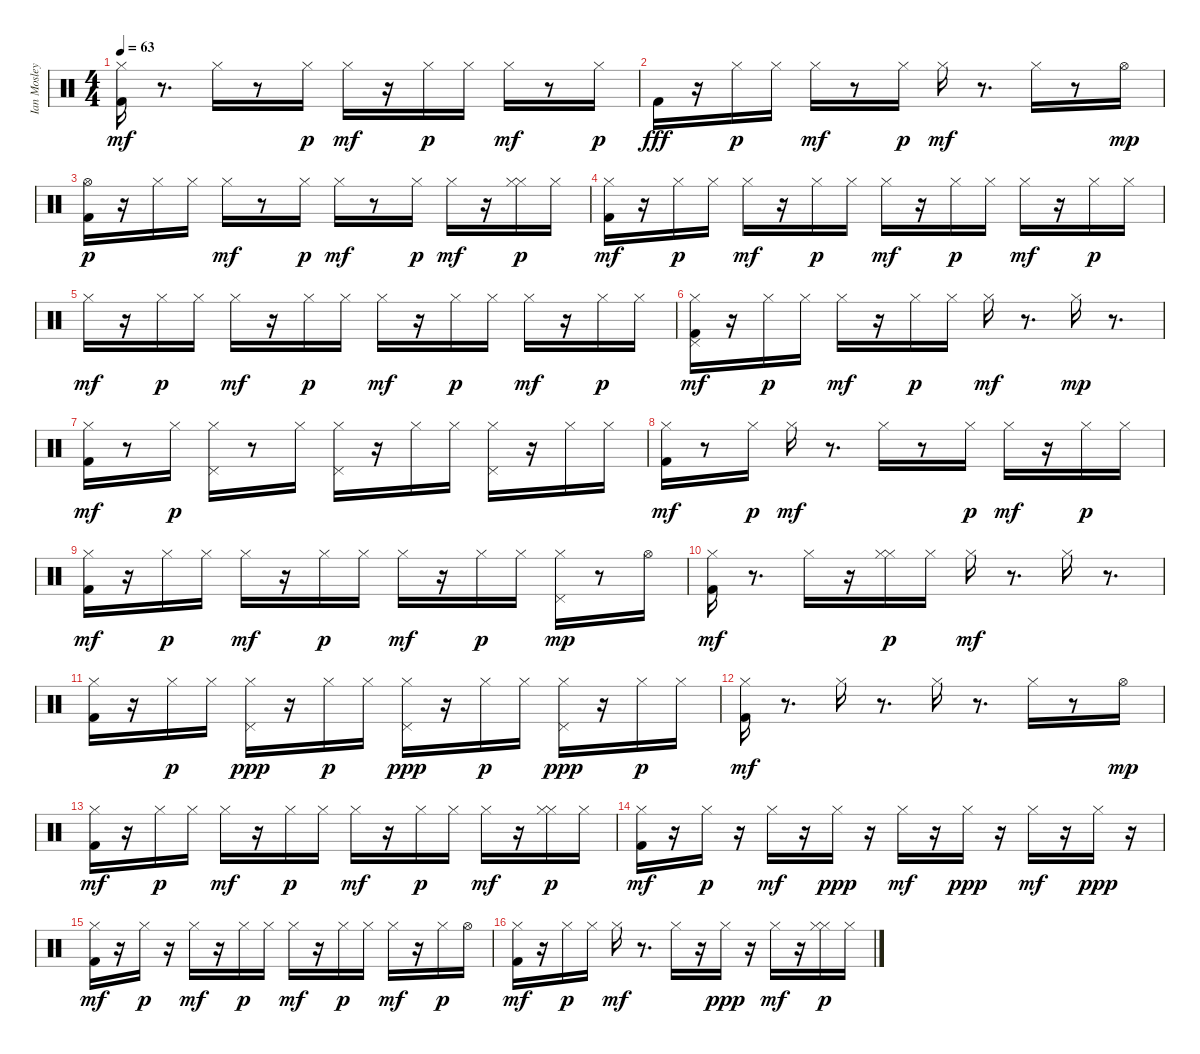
\track ("Ian Mosley" "Ian Mosley") {instrument percussion}
\staff {score}
\articulation defaults
\ts (4 4)
\tempo 63
\clef neutral
\ks c
("Kick (hit) 2" "Hi-Hat (closed)").16{dy mf} r.8{d} "Hi-Hat (closed)".16 r.8 "Hi-Hat (closed)".16{dy p} "Hi-Hat (closed)".16{dy mf} r.16 "Hi-Hat (closed)".16{dy p} "Hi-Hat (closed)".16 "Hi-Hat (closed)".16{dy mf} r.8 "Hi-Hat (closed)".16{dy p} |
"Kick (hit) 2".16{dy fff} r.16 "Hi-Hat (closed)".16{dy p} "Hi-Hat (closed)".16 "Hi-Hat (closed)".16{dy mf} r.8 "Hi-Hat (closed)".16{dy p} "Hi-Hat (closed)".16{dy mf} r.8{d} "Hi-Hat (closed)".16 r.8 "Hi-Hat (open)".16{dy mp} |
("Kick (hit) 2" "Hi-Hat (open)").16{dy p} r.16 "Hi-Hat (closed)".16 "Hi-Hat (closed)".16 "Hi-Hat (closed)".16{dy mf} r.8 "Hi-Hat (closed)".16{dy p} "Hi-Hat (closed)".16{dy mf} r.8 "Hi-Hat (closed)".16{dy p} "Hi-Hat (closed)".16{dy mf} r.16 ("Hi-Hat (closed)" "Hi-Hat (closed)").16{dy p} "Hi-Hat (closed)".16 |
("Kick (hit) 2" "Hi-Hat (closed)").16{dy mf} r.16 "Hi-Hat (closed)".16{dy p} "Hi-Hat (closed)".16 "Hi-Hat (closed)".16{dy mf} r.16 "Hi-Hat (closed)".16{dy p} "Hi-Hat (closed)".16 "Hi-Hat (closed)".16{dy mf} r.16 "Hi-Hat (closed)".16{dy p} "Hi-Hat (closed)".16 "Hi-Hat (closed)".16{dy mf} r.16 "Hi-Hat (closed)".16{dy p} "Hi-Hat (closed)".16 |
"Hi-Hat (closed)".16{dy mf} r.16 "Hi-Hat (closed)".16{dy p} "Hi-Hat (closed)".16 "Hi-Hat (closed)".16{dy mf} r.16 "Hi-Hat (closed)".16{dy p} "Hi-Hat (closed)".16 "Hi-Hat (closed)".16{dy mf} r.16 "Hi-Hat (closed)".16{dy p} "Hi-Hat (closed)".16 "Hi-Hat (closed)".16{dy mf} r.16 "Hi-Hat (closed)".16{dy p} "Hi-Hat (closed)".16 |
("Kick (hit) 2" "Hi-Hat (closed)" "Pedal Hi-Hat (hit)").16{dy mf} r.16 "Hi-Hat (closed)".16{dy p} "Hi-Hat (closed)".16 "Hi-Hat (closed)".16{dy mf} r.16 "Hi-Hat (closed)".16{dy p} "Hi-Hat (closed)".16 "Hi-Hat (closed)".16{dy mf} r.8{d} "Hi-Hat (closed)".16{dy mp} r.8{d} |
("Kick (hit) 2" "Hi-Hat (closed)").16{dy mf} r.8 "Hi-Hat (closed)".16{dy p} ("Hi-Hat (closed)" "Pedal Hi-Hat (hit)").16 r.8 "Hi-Hat (closed)".16 ("Hi-Hat (closed)" "Pedal Hi-Hat (hit)").16 r.16 "Hi-Hat (closed)".16 "Hi-Hat (closed)".16 ("Hi-Hat (closed)" "Pedal Hi-Hat (hit)").16 r.16 "Hi-Hat (closed)".16 "Hi-Hat (closed)".16 |
("Kick (hit) 2" "Hi-Hat (closed)").16{dy mf} r.8 "Hi-Hat (closed)".16{dy p} "Hi-Hat (closed)".16{dy mf} r.8{d} "Hi-Hat (closed)".16 r.8 "Hi-Hat (closed)".16{dy p} "Hi-Hat (closed)".16{dy mf} r.16 "Hi-Hat (closed)".16{dy p} "Hi-Hat (closed)".16 |
("Kick (hit) 2" "Hi-Hat (closed)").16{dy mf} r.16 "Hi-Hat (closed)".16{dy p} "Hi-Hat (closed)".16 "Hi-Hat (closed)".16{dy mf} r.16 "Hi-Hat (closed)".16{dy p} "Hi-Hat (closed)".16 "Hi-Hat (closed)".16{dy mf} r.16 "Hi-Hat (closed)".16{dy p} "Hi-Hat (closed)".16 ("Hi-Hat (closed)" "Pedal Hi-Hat (hit)").16{dy mp} r.8 "Hi-Hat (open)".16 |
("Kick (hit) 2" "Hi-Hat (closed)").16{dy mf} r.8{d} "Hi-Hat (closed)".16 r.16 ("Hi-Hat (closed)" "Hi-Hat (closed)").16{dy p} "Hi-Hat (closed)".16 "Hi-Hat (closed)".16{dy mf} r.8{d} "Hi-Hat (closed)".16 r.8{d} |
("Kick (hit) 2" "Hi-Hat (closed)").16 r.16 "Hi-Hat (closed)".16{dy p} "Hi-Hat (closed)".16 ("Hi-Hat (closed)" "Pedal Hi-Hat (hit)").16{dy ppp} r.16 "Hi-Hat (closed)".16{dy p} "Hi-Hat (closed)".16 ("Hi-Hat (closed)" "Pedal Hi-Hat (hit)").16{dy ppp} r.16 "Hi-Hat (closed)".16{dy p} "Hi-Hat (closed)".16 ("Hi-Hat (closed)" "Pedal Hi-Hat (hit)").16{dy ppp} r.16 "Hi-Hat (closed)".16{dy p} "Hi-Hat (closed)".16 |
("Kick (hit) 2" "Hi-Hat (closed)").16{dy mf} r.8{d} "Hi-Hat (closed)".16 r.8{d} "Hi-Hat (closed)".16 r.8{d} "Hi-Hat (closed)".16 r.8 "Hi-Hat (open)".16{dy mp} |
("Kick (hit) 2" "Hi-Hat (closed)").16{dy mf} r.16 "Hi-Hat (closed)".16{dy p} "Hi-Hat (closed)".16 "Hi-Hat (closed)".16{dy mf} r.16 "Hi-Hat (closed)".16{dy p} "Hi-Hat (closed)".16 "Hi-Hat (closed)".16{dy mf} r.16 "Hi-Hat (closed)".16{dy p} "Hi-Hat (closed)".16 "Hi-Hat (closed)".16{dy mf} r.16 ("Hi-Hat (closed)" "Hi-Hat (closed)").16{dy p} "Hi-Hat (closed)".16 |
("Kick (hit) 2" "Hi-Hat (closed)").16{dy mf} r.16 "Hi-Hat (closed)".16{dy p} r.16 "Hi-Hat (closed)".16{dy mf} r.16 "Hi-Hat (closed)".16{dy ppp} r.16 "Hi-Hat (closed)".16{dy mf} r.16 "Hi-Hat (closed)".16{dy ppp} r.16 "Hi-Hat (closed)".16{dy mf} r.16 "Hi-Hat (closed)".16{dy ppp} r.16 |
("Kick (hit) 2" "Hi-Hat (closed)").16{dy mf} r.16 "Hi-Hat (closed)".16{dy p} r.16 "Hi-Hat (closed)".16{dy mf} r.16 "Hi-Hat (closed)".16{dy p} "Hi-Hat (closed)".16 "Hi-Hat (closed)".16{dy mf} r.16 "Hi-Hat (closed)".16{dy p} "Hi-Hat (closed)".16 "Hi-Hat (closed)".16{dy mf} r.16 "Hi-Hat (closed)".16{dy p} "Hi-Hat (open)".16 |
("Kick (hit) 2" "Hi-Hat (closed)").16{dy mf} r.16 "Hi-Hat (closed)".16{dy p} "Hi-Hat (closed)".16 "Hi-Hat (closed)".16{dy mf} r.8{d} "Hi-Hat (closed)".16 r.16 "Hi-Hat (closed)".16{dy ppp} r.16 "Hi-Hat (closed)".16{dy mf} r.16 ("Hi-Hat (closed)" "Hi-Hat (closed)").16{dy p} "Hi-Hat (closed)".16
